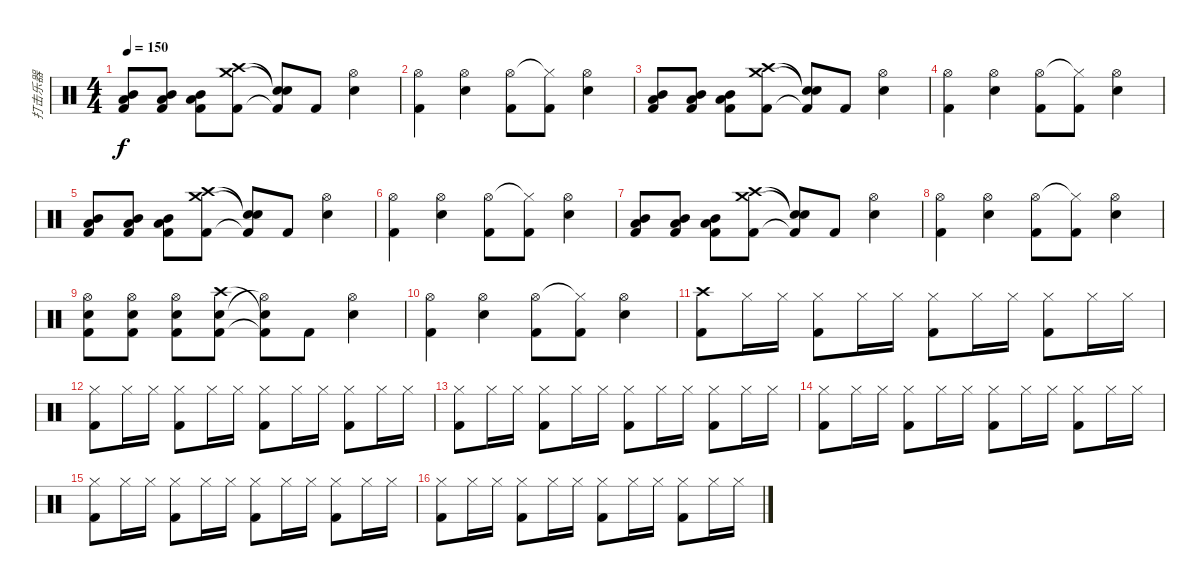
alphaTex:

\track ("打击乐器" "打击乐器") {instrument percussion}
\staff {score}
\articulation defaults
\ts (4 4)
\tempo 150
\clef neutral
\ks c
("Mid Tom (hit)" "Low Tom (hit)" "Kick (hit) 2").8{dy f} ("Mid Tom (hit)" "Low Tom (hit)" "Kick (hit) 2").8 ("Mid Tom (hit)" "Low Tom (hit)" "Kick (hit) 2").8 ("Crash high (hit)" "Crash medium (hit)" "Kick (hit) 2").8 ("Snare (hit)"{t} "Snare (hit)"{t} "Kick (hit) 2"{t}).8 "Kick (hit) 2".8 ("Hi-Hat (open)" "Snare (hit) 2").4 |
("Hi-Hat (open)" "Kick (hit) 2").4 ("Hi-Hat (open)" "Snare (hit) 2").4 ("Hi-Hat (open)" "Kick (hit) 2").8 ("Hi-Hat (closed)"{t} "Kick (hit) 2").8 ("Hi-Hat (open)" "Snare (hit) 2").4 |
("Mid Tom (hit)" "Low Tom (hit)" "Kick (hit) 2").8 ("Mid Tom (hit)" "Low Tom (hit)" "Kick (hit) 2").8 ("Mid Tom (hit)" "Low Tom (hit)" "Kick (hit) 2").8 ("Crash high (hit)" "Crash medium (hit)" "Kick (hit) 2").8 ("Snare (hit)"{t} "Snare (hit)"{t} "Kick (hit) 2"{t}).8 "Kick (hit) 2".8 ("Hi-Hat (open)" "Snare (hit) 2").4 |
("Hi-Hat (open)" "Kick (hit) 2").4 ("Hi-Hat (open)" "Snare (hit) 2").4 ("Hi-Hat (open)" "Kick (hit) 2").8 ("Hi-Hat (closed)"{t} "Kick (hit) 2").8 ("Hi-Hat (open)" "Snare (hit) 2").4 |
("Mid Tom (hit)" "Low Tom (hit)" "Kick (hit) 2").8 ("Mid Tom (hit)" "Low Tom (hit)" "Kick (hit) 2").8 ("Mid Tom (hit)" "Low Tom (hit)" "Kick (hit) 2").8 ("Crash high (hit)" "Crash medium (hit)" "Kick (hit) 2").8 ("Snare (hit)"{t} "Snare (hit)"{t} "Kick (hit) 2"{t}).8 "Kick (hit) 2".8 ("Hi-Hat (open)" "Snare (hit) 2").4 |
("Hi-Hat (open)" "Kick (hit) 2").4 ("Hi-Hat (open)" "Snare (hit) 2").4 ("Hi-Hat (open)" "Kick (hit) 2").8 ("Hi-Hat (closed)"{t} "Kick (hit) 2").8 ("Hi-Hat (open)" "Snare (hit) 2").4 |
("Mid Tom (hit)" "Low Tom (hit)" "Kick (hit) 2").8 ("Mid Tom (hit)" "Low Tom (hit)" "Kick (hit) 2").8 ("Mid Tom (hit)" "Low Tom (hit)" "Kick (hit) 2").8 ("Crash high (hit)" "Crash medium (hit)" "Kick (hit) 2").8 ("Snare (hit)"{t} "Snare (hit)"{t} "Kick (hit) 2"{t}).8 "Kick (hit) 2".8 ("Hi-Hat (open)" "Snare (hit) 2").4 |
("Hi-Hat (open)" "Kick (hit) 2").4 ("Hi-Hat (open)" "Snare (hit) 2").4 ("Hi-Hat (open)" "Kick (hit) 2").8 ("Hi-Hat (closed)"{t} "Kick (hit) 2").8 ("Hi-Hat (open)" "Snare (hit) 2").4 |
("Hi-Hat (open)" "Snare (hit) 2" "Kick (hit) 2").8 ("Hi-Hat (open)" "Snare (hit) 2" "Kick (hit) 2").8 ("Hi-Hat (open)" "Snare (hit) 2" "Kick (hit) 2").8 ("Crash high (hit)" "Snare (hit) 2" "Kick (hit) 2").8 ("Snare (hit)"{t} "Hi-Hat (open)"{t} "Kick (hit) 2"{t}).8 "Kick (hit) 2".8 ("Hi-Hat (open)" "Snare (hit) 2").4 |
("Hi-Hat (open)" "Kick (hit) 2").4 ("Hi-Hat (open)" "Snare (hit) 2").4 ("Hi-Hat (open)" "Kick (hit) 2").8 ("Hi-Hat (closed)"{t} "Kick (hit) 2").8 ("Hi-Hat (open)" "Snare (hit) 2").4 |
("Crash high (hit)" "Kick (hit) 2").8 "Hi-Hat (closed)".16 "Hi-Hat (closed)".16 ("Hi-Hat (closed)" "Kick (hit) 2").8 "Hi-Hat (closed)".16 "Hi-Hat (closed)".16 ("Hi-Hat (closed)" "Kick (hit) 2").8 "Hi-Hat (closed)".16 "Hi-Hat (closed)".16 ("Hi-Hat (closed)" "Kick (hit) 2").8 "Hi-Hat (closed)".16 "Hi-Hat (closed)".16 |
("Hi-Hat (closed)" "Kick (hit) 2").8 "Hi-Hat (closed)".16 "Hi-Hat (closed)".16 ("Hi-Hat (closed)" "Kick (hit) 2").8 "Hi-Hat (closed)".16 "Hi-Hat (closed)".16 ("Hi-Hat (closed)" "Kick (hit) 2").8 "Hi-Hat (closed)".16 "Hi-Hat (closed)".16 ("Hi-Hat (closed)" "Kick (hit) 2").8 "Hi-Hat (closed)".16 "Hi-Hat (closed)".16 |
("Hi-Hat (closed)" "Kick (hit) 2").8 "Hi-Hat (closed)".16 "Hi-Hat (closed)".16 ("Hi-Hat (closed)" "Kick (hit) 2").8 "Hi-Hat (closed)".16 "Hi-Hat (closed)".16 ("Hi-Hat (closed)" "Kick (hit) 2").8 "Hi-Hat (closed)".16 "Hi-Hat (closed)".16 ("Hi-Hat (closed)" "Kick (hit) 2").8 "Hi-Hat (closed)".16 "Hi-Hat (closed)".16 |
("Hi-Hat (closed)" "Kick (hit) 2").8 "Hi-Hat (closed)".16 "Hi-Hat (closed)".16 ("Hi-Hat (closed)" "Kick (hit) 2").8 "Hi-Hat (closed)".16 "Hi-Hat (closed)".16 ("Hi-Hat (closed)" "Kick (hit) 2").8 "Hi-Hat (closed)".16 "Hi-Hat (closed)".16 ("Hi-Hat (closed)" "Kick (hit) 2").8 "Hi-Hat (closed)".16 "Hi-Hat (closed)".16 |
("Hi-Hat (closed)" "Kick (hit) 2").8 "Hi-Hat (closed)".16 "Hi-Hat (closed)".16 ("Hi-Hat (closed)" "Kick (hit) 2").8 "Hi-Hat (closed)".16 "Hi-Hat (closed)".16 ("Hi-Hat (closed)" "Kick (hit) 2").8 "Hi-Hat (closed)".16 "Hi-Hat (closed)".16 ("Hi-Hat (closed)" "Kick (hit) 2").8 "Hi-Hat (closed)".16 "Hi-Hat (closed)".16 |
("Hi-Hat (closed)" "Kick (hit) 2").8 "Hi-Hat (closed)".16 "Hi-Hat (closed)".16 ("Hi-Hat (closed)" "Kick (hit) 2").8 "Hi-Hat (closed)".16 "Hi-Hat (closed)".16 ("Hi-Hat (closed)" "Kick (hit) 2").8 "Hi-Hat (closed)".16 "Hi-Hat (closed)".16 ("Hi-Hat (closed)" "Kick (hit) 2").8 "Hi-Hat (closed)".16 "Hi-Hat (closed)".16
